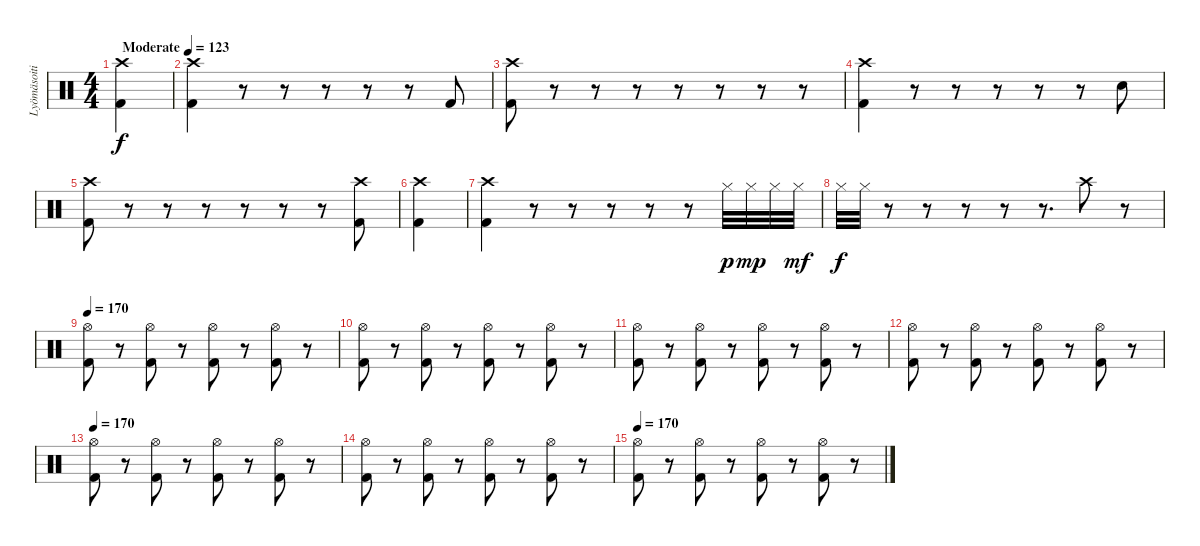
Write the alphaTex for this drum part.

\track ("Lyömäsoitin" "Lyömäsoiti") {instrument percussion}
\staff {score}
\articulation defaults
\ts (4 4)
\tempo (123 "Moderate")
\clef neutral
\ks c
("Crash high (hit)" "Kick (hit) 2").4{dy f} |
("Crash high (hit)" "Kick (hit) 2").4 r.8 r.8 r.8 r.8 r.8 "Kick (hit) 2".8 |
("Crash high (hit)" "Kick (hit) 2").8 r.8 r.8 r.8 r.8 r.8 r.8 r.8 |
("Crash high (hit)" "Kick (hit) 2").4 r.8 r.8 r.8 r.8 r.8 "Snare (hit) 2".8 |
("Crash high (hit)" "Kick (hit) 2").8 r.8 r.8 r.8 r.8 r.8 r.8 ("Crash high (hit)" "Kick (hit) 2").8 |
("Crash high (hit)" "Kick (hit) 2").4 |
("Crash high (hit)" "Kick (hit) 2").4 r.8 r.8 r.8 r.8 r.8 "Hi-Hat (closed)".32{dy p} "Hi-Hat (closed)".32{dy mp} "Hi-Hat (closed)".32 "Hi-Hat (closed)".32{dy mf} |
"Hi-Hat (closed)".32{dy f} "Hi-Hat (closed)".32 r.8 r.8 r.8 r.8 r.8{d} "Crash high (hit)".8 r.8 |
\tempo 170
("Hi-Hat (open)" "Kick (hit) 2").8 r.8 ("Hi-Hat (open)" "Kick (hit) 2").8 r.8 ("Hi-Hat (open)" "Kick (hit) 2").8 r.8 ("Hi-Hat (open)" "Kick (hit) 2").8 r.8 |
("Hi-Hat (open)" "Kick (hit) 2").8 r.8 ("Hi-Hat (open)" "Kick (hit) 2").8 r.8 ("Hi-Hat (open)" "Kick (hit) 2").8 r.8 ("Hi-Hat (open)" "Kick (hit) 2").8 r.8 |
("Hi-Hat (open)" "Kick (hit) 2").8 r.8 ("Hi-Hat (open)" "Kick (hit) 2").8 r.8 ("Hi-Hat (open)" "Kick (hit) 2").8 r.8 ("Hi-Hat (open)" "Kick (hit) 2").8 r.8 |
("Hi-Hat (open)" "Kick (hit) 2").8 r.8 ("Hi-Hat (open)" "Kick (hit) 2").8 r.8 ("Hi-Hat (open)" "Kick (hit) 2").8 r.8 ("Hi-Hat (open)" "Kick (hit) 2").8 r.8 |
\tempo 170
("Hi-Hat (open)" "Kick (hit) 2").8 r.8 ("Hi-Hat (open)" "Kick (hit) 2").8 r.8 ("Hi-Hat (open)" "Kick (hit) 2").8 r.8 ("Hi-Hat (open)" "Kick (hit) 2").8 r.8 |
("Hi-Hat (open)" "Kick (hit) 2").8 r.8 ("Hi-Hat (open)" "Kick (hit) 2").8 r.8 ("Hi-Hat (open)" "Kick (hit) 2").8 r.8 ("Hi-Hat (open)" "Kick (hit) 2").8 r.8 |
\tempo 170
("Hi-Hat (open)" "Kick (hit) 2").8 r.8 ("Hi-Hat (open)" "Kick (hit) 2").8 r.8 ("Hi-Hat (open)" "Kick (hit) 2").8 r.8 ("Hi-Hat (open)" "Kick (hit) 2").8 r.8
